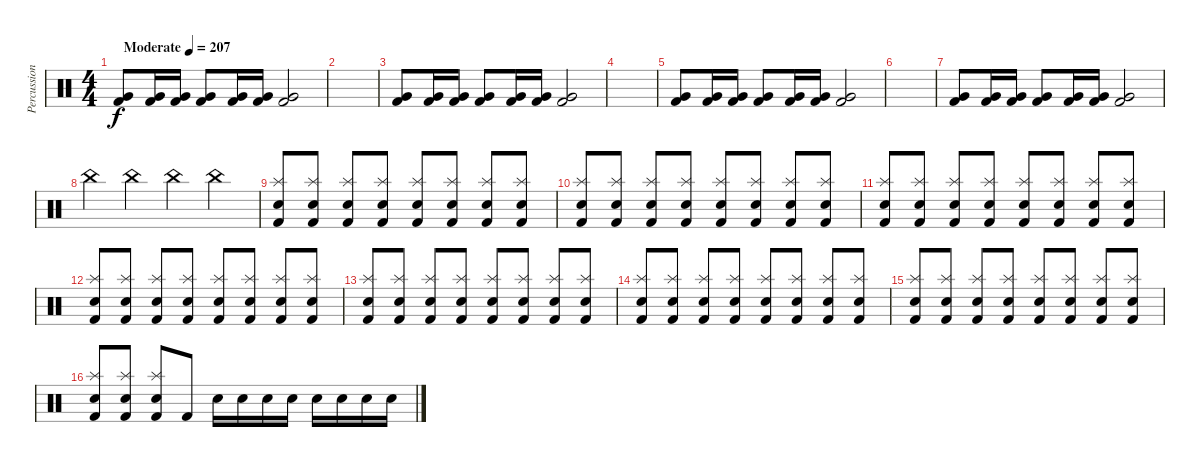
\track ("Percussion" "Percussion") {instrument percussion}
\staff {score}
\articulation defaults
\ts (4 4)
\tempo (207 "Moderate")
\clef neutral
\ks c
("Very Low Tom (hit)" "Kick (hit) 2").8{dy f} ("Very Low Tom (hit)" "Kick (hit) 2").16 ("Very Low Tom (hit)" "Kick (hit) 2").16 ("Very Low Tom (hit)" "Kick (hit) 2").8 ("Very Low Tom (hit)" "Kick (hit) 2").16 ("Very Low Tom (hit)" "Kick (hit) 2").16 ("Very Low Tom (hit)" "Kick (hit) 2").2 |
|
("Very Low Tom (hit)" "Kick (hit) 2").8 ("Very Low Tom (hit)" "Kick (hit) 2").16 ("Very Low Tom (hit)" "Kick (hit) 2").16 ("Very Low Tom (hit)" "Kick (hit) 2").8 ("Very Low Tom (hit)" "Kick (hit) 2").16 ("Very Low Tom (hit)" "Kick (hit) 2").16 ("Very Low Tom (hit)" "Kick (hit) 2").2 |
|
("Very Low Tom (hit)" "Kick (hit) 2").8 ("Very Low Tom (hit)" "Kick (hit) 2").16 ("Very Low Tom (hit)" "Kick (hit) 2").16 ("Very Low Tom (hit)" "Kick (hit) 2").8 ("Very Low Tom (hit)" "Kick (hit) 2").16 ("Very Low Tom (hit)" "Kick (hit) 2").16 ("Very Low Tom (hit)" "Kick (hit) 2").2 |
|
("Very Low Tom (hit)" "Kick (hit) 2").8 ("Very Low Tom (hit)" "Kick (hit) 2").16 ("Very Low Tom (hit)" "Kick (hit) 2").16 ("Very Low Tom (hit)" "Kick (hit) 2").8 ("Very Low Tom (hit)" "Kick (hit) 2").16 ("Very Low Tom (hit)" "Kick (hit) 2").16 ("Very Low Tom (hit)" "Kick (hit) 2").2 |
"China (hit)".4 "China (hit)".4 "China (hit)".4 "China (hit)".4 |
("Splash (hit)" "Electric Snare (hit)" "Kick (hit) 2").8 ("Splash (hit)" "Electric Snare (hit)" "Kick (hit) 2").8 ("Splash (hit)" "Electric Snare (hit)" "Kick (hit) 2").8 ("Splash (hit)" "Electric Snare (hit)" "Kick (hit) 2").8 ("Splash (hit)" "Electric Snare (hit)" "Kick (hit) 2").8 ("Splash (hit)" "Electric Snare (hit)" "Kick (hit) 2").8 ("Splash (hit)" "Electric Snare (hit)" "Kick (hit) 2").8 ("Splash (hit)" "Electric Snare (hit)" "Kick (hit) 2").8 |
("Splash (hit)" "Electric Snare (hit)" "Kick (hit) 2").8 ("Splash (hit)" "Electric Snare (hit)" "Kick (hit) 2").8 ("Splash (hit)" "Electric Snare (hit)" "Kick (hit) 2").8 ("Splash (hit)" "Electric Snare (hit)" "Kick (hit) 2").8 ("Splash (hit)" "Electric Snare (hit)" "Kick (hit) 2").8 ("Splash (hit)" "Electric Snare (hit)" "Kick (hit) 2").8 ("Splash (hit)" "Electric Snare (hit)" "Kick (hit) 2").8 ("Splash (hit)" "Electric Snare (hit)" "Kick (hit) 2").8 |
("Splash (hit)" "Electric Snare (hit)" "Kick (hit) 2").8 ("Splash (hit)" "Electric Snare (hit)" "Kick (hit) 2").8 ("Splash (hit)" "Electric Snare (hit)" "Kick (hit) 2").8 ("Splash (hit)" "Electric Snare (hit)" "Kick (hit) 2").8 ("Splash (hit)" "Electric Snare (hit)" "Kick (hit) 2").8 ("Splash (hit)" "Electric Snare (hit)" "Kick (hit) 2").8 ("Splash (hit)" "Electric Snare (hit)" "Kick (hit) 2").8 ("Splash (hit)" "Electric Snare (hit)" "Kick (hit) 2").8 |
("Splash (hit)" "Electric Snare (hit)" "Kick (hit) 2").8 ("Splash (hit)" "Electric Snare (hit)" "Kick (hit) 2").8 ("Splash (hit)" "Electric Snare (hit)" "Kick (hit) 2").8 ("Splash (hit)" "Electric Snare (hit)" "Kick (hit) 2").8 ("Splash (hit)" "Electric Snare (hit)" "Kick (hit) 2").8 ("Splash (hit)" "Electric Snare (hit)" "Kick (hit) 2").8 ("Splash (hit)" "Electric Snare (hit)" "Kick (hit) 2").8 ("Splash (hit)" "Electric Snare (hit)" "Kick (hit) 2").8 |
("Splash (hit)" "Electric Snare (hit)" "Kick (hit) 2").8 ("Splash (hit)" "Electric Snare (hit)" "Kick (hit) 2").8 ("Splash (hit)" "Electric Snare (hit)" "Kick (hit) 2").8 ("Splash (hit)" "Electric Snare (hit)" "Kick (hit) 2").8 ("Splash (hit)" "Electric Snare (hit)" "Kick (hit) 2").8 ("Splash (hit)" "Electric Snare (hit)" "Kick (hit) 2").8 ("Splash (hit)" "Electric Snare (hit)" "Kick (hit) 2").8 ("Splash (hit)" "Electric Snare (hit)" "Kick (hit) 2").8 |
("Splash (hit)" "Electric Snare (hit)" "Kick (hit) 2").8 ("Splash (hit)" "Electric Snare (hit)" "Kick (hit) 2").8 ("Splash (hit)" "Electric Snare (hit)" "Kick (hit) 2").8 ("Splash (hit)" "Electric Snare (hit)" "Kick (hit) 2").8 ("Splash (hit)" "Electric Snare (hit)" "Kick (hit) 2").8 ("Splash (hit)" "Electric Snare (hit)" "Kick (hit) 2").8 ("Splash (hit)" "Electric Snare (hit)" "Kick (hit) 2").8 ("Splash (hit)" "Electric Snare (hit)" "Kick (hit) 2").8 |
("Splash (hit)" "Electric Snare (hit)" "Kick (hit) 2").8 ("Splash (hit)" "Electric Snare (hit)" "Kick (hit) 2").8 ("Splash (hit)" "Electric Snare (hit)" "Kick (hit) 2").8 ("Splash (hit)" "Electric Snare (hit)" "Kick (hit) 2").8 ("Splash (hit)" "Electric Snare (hit)" "Kick (hit) 2").8 ("Splash (hit)" "Electric Snare (hit)" "Kick (hit) 2").8 ("Splash (hit)" "Electric Snare (hit)" "Kick (hit) 2").8 ("Splash (hit)" "Electric Snare (hit)" "Kick (hit) 2").8 |
("Splash (hit)" "Electric Snare (hit)" "Kick (hit) 2").8 ("Splash (hit)" "Electric Snare (hit)" "Kick (hit) 2").8 ("Splash (hit)" "Electric Snare (hit)" "Kick (hit) 2").8 "Kick (hit) 2".8 "Electric Snare (hit)".16 "Electric Snare (hit)".16 "Electric Snare (hit)".16 "Electric Snare (hit)".16 "Electric Snare (hit)".16 "Electric Snare (hit)".16 "Electric Snare (hit)".16 "Electric Snare (hit)".16
